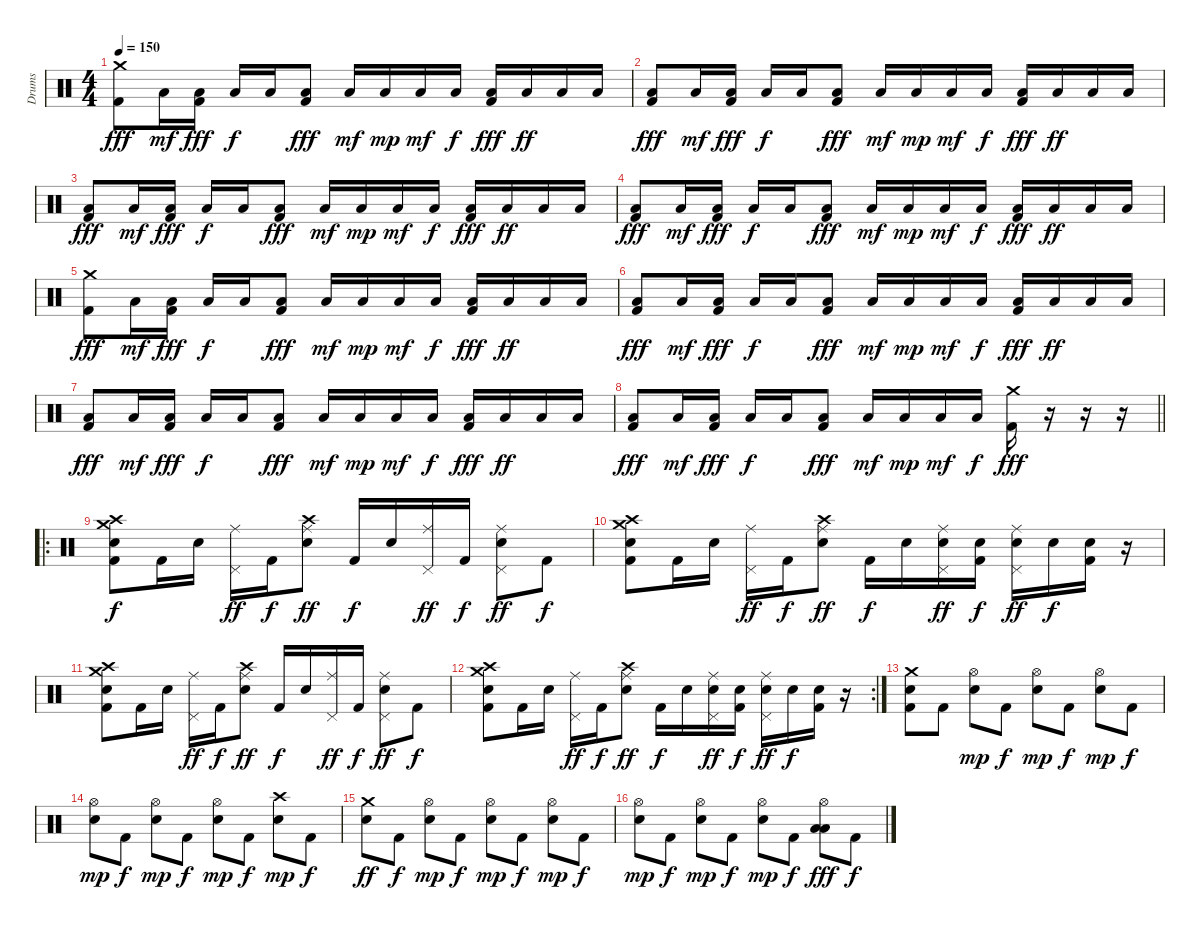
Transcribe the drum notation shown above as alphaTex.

\track ("Drums" "Drums") {instrument percussion}
\staff {score}
\articulation defaults
\ts (4 4)
\tempo 150
\clef neutral
\ks c
("Crash medium (hit)" "Kick (hit) 2").8{dy fff} "Low Floor Tom (hit)".16{dy mf} ("Low Floor Tom (hit)" "Kick (hit) 2").16{dy fff} "Low Floor Tom (hit)".16{dy f} "Low Floor Tom (hit)".16 ("Low Floor Tom (hit)" "Kick (hit) 2").8{dy fff} "Low Floor Tom (hit)".16{dy mf} "Low Floor Tom (hit)".16{dy mp} "Low Floor Tom (hit)".16{dy mf} "Low Floor Tom (hit)".16{dy f} ("Low Floor Tom (hit)" "Kick (hit) 2").16{dy fff} "Low Floor Tom (hit)".16{dy ff} "Low Floor Tom (hit)".16 "Low Floor Tom (hit)".16 |
("Low Floor Tom (hit)" "Kick (hit) 2").8{dy fff} "Low Floor Tom (hit)".16{dy mf} ("Low Floor Tom (hit)" "Kick (hit) 2").16{dy fff} "Low Floor Tom (hit)".16{dy f} "Low Floor Tom (hit)".16 ("Low Floor Tom (hit)" "Kick (hit) 2").8{dy fff} "Low Floor Tom (hit)".16{dy mf} "Low Floor Tom (hit)".16{dy mp} "Low Floor Tom (hit)".16{dy mf} "Low Floor Tom (hit)".16{dy f} ("Low Floor Tom (hit)" "Kick (hit) 2").16{dy fff} "Low Floor Tom (hit)".16{dy ff} "Low Floor Tom (hit)".16 "Low Floor Tom (hit)".16 |
("Low Floor Tom (hit)" "Kick (hit) 2").8{dy fff} "Low Floor Tom (hit)".16{dy mf} ("Low Floor Tom (hit)" "Kick (hit) 2").16{dy fff} "Low Floor Tom (hit)".16{dy f} "Low Floor Tom (hit)".16 ("Low Floor Tom (hit)" "Kick (hit) 2").8{dy fff} "Low Floor Tom (hit)".16{dy mf} "Low Floor Tom (hit)".16{dy mp} "Low Floor Tom (hit)".16{dy mf} "Low Floor Tom (hit)".16{dy f} ("Low Floor Tom (hit)" "Kick (hit) 2").16{dy fff} "Low Floor Tom (hit)".16{dy ff} "Low Floor Tom (hit)".16 "Low Floor Tom (hit)".16 |
("Low Floor Tom (hit)" "Kick (hit) 2").8{dy fff} "Low Floor Tom (hit)".16{dy mf} ("Low Floor Tom (hit)" "Kick (hit) 2").16{dy fff} "Low Floor Tom (hit)".16{dy f} "Low Floor Tom (hit)".16 ("Low Floor Tom (hit)" "Kick (hit) 2").8{dy fff} "Low Floor Tom (hit)".16{dy mf} "Low Floor Tom (hit)".16{dy mp} "Low Floor Tom (hit)".16{dy mf} "Low Floor Tom (hit)".16{dy f} ("Low Floor Tom (hit)" "Kick (hit) 2").16{dy fff} "Low Floor Tom (hit)".16{dy ff} "Low Floor Tom (hit)".16 "Low Floor Tom (hit)".16 |
("Crash medium (hit)" "Kick (hit) 2").8{dy fff} "Low Floor Tom (hit)".16{dy mf} ("Low Floor Tom (hit)" "Kick (hit) 2").16{dy fff} "Low Floor Tom (hit)".16{dy f} "Low Floor Tom (hit)".16 ("Low Floor Tom (hit)" "Kick (hit) 2").8{dy fff} "Low Floor Tom (hit)".16{dy mf} "Low Floor Tom (hit)".16{dy mp} "Low Floor Tom (hit)".16{dy mf} "Low Floor Tom (hit)".16{dy f} ("Low Floor Tom (hit)" "Kick (hit) 2").16{dy fff} "Low Floor Tom (hit)".16{dy ff} "Low Floor Tom (hit)".16 "Low Floor Tom (hit)".16 |
("Low Floor Tom (hit)" "Kick (hit) 2").8{dy fff} "Low Floor Tom (hit)".16{dy mf} ("Low Floor Tom (hit)" "Kick (hit) 2").16{dy fff} "Low Floor Tom (hit)".16{dy f} "Low Floor Tom (hit)".16 ("Low Floor Tom (hit)" "Kick (hit) 2").8{dy fff} "Low Floor Tom (hit)".16{dy mf} "Low Floor Tom (hit)".16{dy mp} "Low Floor Tom (hit)".16{dy mf} "Low Floor Tom (hit)".16{dy f} ("Low Floor Tom (hit)" "Kick (hit) 2").16{dy fff} "Low Floor Tom (hit)".16{dy ff} "Low Floor Tom (hit)".16 "Low Floor Tom (hit)".16 |
("Low Floor Tom (hit)" "Kick (hit) 2").8{dy fff} "Low Floor Tom (hit)".16{dy mf} ("Low Floor Tom (hit)" "Kick (hit) 2").16{dy fff} "Low Floor Tom (hit)".16{dy f} "Low Floor Tom (hit)".16 ("Low Floor Tom (hit)" "Kick (hit) 2").8{dy fff} "Low Floor Tom (hit)".16{dy mf} "Low Floor Tom (hit)".16{dy mp} "Low Floor Tom (hit)".16{dy mf} "Low Floor Tom (hit)".16{dy f} ("Low Floor Tom (hit)" "Kick (hit) 2").16{dy fff} "Low Floor Tom (hit)".16{dy ff} "Low Floor Tom (hit)".16 "Low Floor Tom (hit)".16 |
\barLineRight lightlight
("Low Floor Tom (hit)" "Kick (hit) 2").8{dy fff} "Low Floor Tom (hit)".16{dy mf} ("Low Floor Tom (hit)" "Kick (hit) 2").16{dy fff} "Low Floor Tom (hit)".16{dy f} "Low Floor Tom (hit)".16 ("Low Floor Tom (hit)" "Kick (hit) 2").8{dy fff} "Low Floor Tom (hit)".16{dy mf} "Low Floor Tom (hit)".16{dy mp} "Low Floor Tom (hit)".16{dy mf} "Low Floor Tom (hit)".16{dy f} ("Crash medium (hit)" "Kick (hit) 2").16{dy fff} r.16 r.16 r.16 |
\ro
("Crash medium (hit)" "Crash high (hit)" "Electric Snare (hit)" "Kick (hit) 2").8{dy f} "Kick (hit) 2".16 "Electric Snare (hit)".16 ("Pedal Hi-Hat (hit)" "Ride (middle)").16{dy ff} "Kick (hit) 2".16{dy f} ("Crash high (hit)" "Ride (middle)" "Electric Snare (hit)").8{dy ff} "Kick (hit) 2".16{dy f} "Electric Snare (hit)".16 ("Pedal Hi-Hat (hit)" "Ride (middle)").16{dy ff} "Kick (hit) 2".16{dy f} ("Pedal Hi-Hat (hit)" "Ride (middle)" "Electric Snare (hit)").8{dy ff} "Kick (hit) 2".8{dy f} |
("Crash medium (hit)" "Crash high (hit)" "Electric Snare (hit)" "Kick (hit) 2").8 "Kick (hit) 2".16 "Electric Snare (hit)".16 ("Pedal Hi-Hat (hit)" "Ride (middle)").16{dy ff} "Kick (hit) 2".16{dy f} ("Crash high (hit)" "Ride (middle)" "Electric Snare (hit)").8{dy ff} "Kick (hit) 2".16{dy f} "Electric Snare (hit)".16 ("Pedal Hi-Hat (hit)" "Ride (middle)" "Electric Snare (hit)").16{dy ff} ("Electric Snare (hit)" "Kick (hit) 2").16{dy f} ("Pedal Hi-Hat (hit)" "Ride (middle)" "Electric Snare (hit)").16{dy ff} "Electric Snare (hit)".16{dy f} ("Electric Snare (hit)" "Kick (hit) 2").16 r.16 |
("Crash medium (hit)" "Crash high (hit)" "Electric Snare (hit)" "Kick (hit) 2").8 "Kick (hit) 2".16 "Electric Snare (hit)".16 ("Pedal Hi-Hat (hit)" "Ride (middle)").16{dy ff} "Kick (hit) 2".16{dy f} ("Crash high (hit)" "Ride (middle)" "Electric Snare (hit)").8{dy ff} "Kick (hit) 2".16{dy f} "Electric Snare (hit)".16 ("Pedal Hi-Hat (hit)" "Ride (middle)").16{dy ff} "Kick (hit) 2".16{dy f} ("Pedal Hi-Hat (hit)" "Ride (middle)" "Electric Snare (hit)").8{dy ff} "Kick (hit) 2".8{dy f} |
\rc 2
("Crash medium (hit)" "Crash high (hit)" "Electric Snare (hit)" "Kick (hit) 2").8 "Kick (hit) 2".16 "Electric Snare (hit)".16 ("Pedal Hi-Hat (hit)" "Ride (middle)").16{dy ff} "Kick (hit) 2".16{dy f} ("Crash high (hit)" "Ride (middle)" "Electric Snare (hit)").8{dy ff} "Kick (hit) 2".16{dy f} "Electric Snare (hit)".16 ("Pedal Hi-Hat (hit)" "Ride (middle)" "Electric Snare (hit)").16{dy ff} ("Electric Snare (hit)" "Kick (hit) 2").16{dy f} ("Pedal Hi-Hat (hit)" "Ride (middle)" "Electric Snare (hit)").16{dy ff} "Electric Snare (hit)".16{dy f} ("Electric Snare (hit)" "Kick (hit) 2").16 r.16 |
("Crash medium (hit)" "Electric Snare (hit)" "Kick (hit) 2").8 "Kick (hit) 2".8 ("Hi-Hat (open)" "Electric Snare (hit)").8{dy mp} "Kick (hit) 2".8{dy f} ("Hi-Hat (open)" "Electric Snare (hit)").8{dy mp} "Kick (hit) 2".8{dy f} ("Hi-Hat (open)" "Electric Snare (hit)").8{dy mp} "Kick (hit) 2".8{dy f} |
("Hi-Hat (open)" "Electric Snare (hit)").8{dy mp} "Kick (hit) 2".8{dy f} ("Hi-Hat (open)" "Electric Snare (hit)").8{dy mp} "Kick (hit) 2".8{dy f} ("Hi-Hat (open)" "Electric Snare (hit)").8{dy mp} "Kick (hit) 2".8{dy f} ("Crash high (hit)" "Electric Snare (hit)").8{dy mp} "Kick (hit) 2".8{dy f} |
("Crash medium (hit)" "Electric Snare (hit)").8{dy ff} "Kick (hit) 2".8{dy f} ("Hi-Hat (open)" "Electric Snare (hit)").8{dy mp} "Kick (hit) 2".8{dy f} ("Hi-Hat (open)" "Electric Snare (hit)").8{dy mp} "Kick (hit) 2".8{dy f} ("Hi-Hat (open)" "Electric Snare (hit)").8{dy mp} "Kick (hit) 2".8{dy f} |
("Hi-Hat (open)" "Electric Snare (hit)").8{dy mp} "Kick (hit) 2".8{dy f} ("Hi-Hat (open)" "Electric Snare (hit)").8{dy mp} "Kick (hit) 2".8{dy f} ("Hi-Hat (open)" "Electric Snare (hit)").8{dy mp} "Kick (hit) 2".8{dy f} ("Hi-Hat (open)" "Low Tom (hit)" "Low Tom (hit)").8{dy fff} "Kick (hit) 2".8{dy f}
